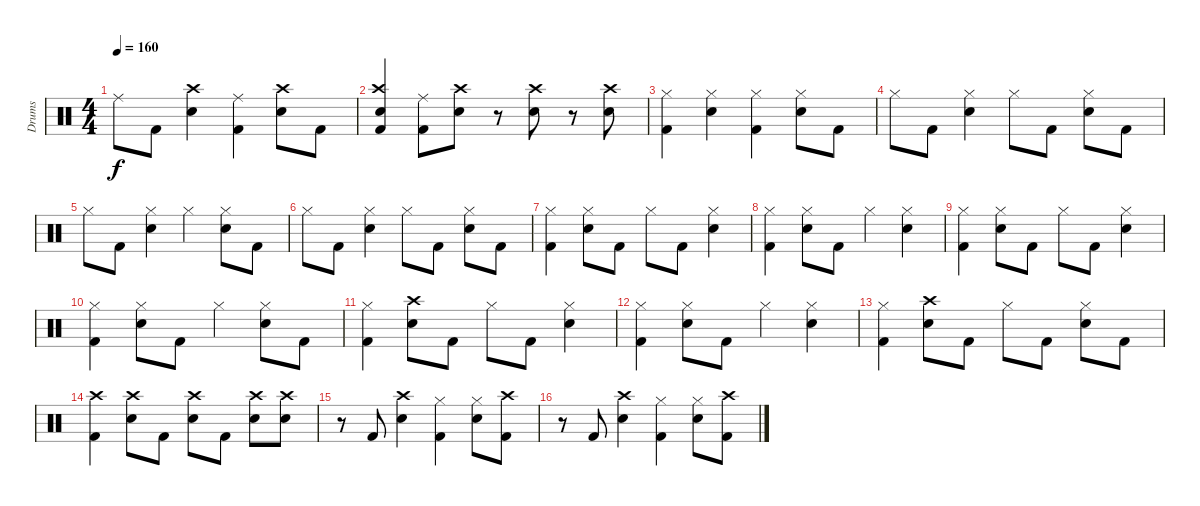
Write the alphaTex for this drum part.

\track ("Drums" "Drums") {instrument percussion}
\staff {score}
\articulation defaults
\ts (4 4)
\tempo 160
\clef neutral
\ks c "Ride (middle)".8{dy f} "Kick (hit) 2".8
("Crash high (hit)" "Electric Snare (hit)").4 ("Ride (middle)" "Kick (hit) 2").4 ("Crash high (hit)" "Electric Snare (hit)").8 "Kick (hit) 2".8 |
("Crash high (hit)" "Electric Snare (hit)" "Kick (hit) 2").4 ("Ride (middle)" "Kick (hit) 2").8 ("Crash high (hit)" "Electric Snare (hit)").8 r.8 ("Crash high (hit)" "Electric Snare (hit)").8 r.8 ("Crash high (hit)" "Electric Snare (hit)").8 |
("Hi-Hat (closed)" "Kick (hit) 2").4 ("Hi-Hat (closed)" "Electric Snare (hit)").4 ("Hi-Hat (closed)" "Kick (hit) 2").4 ("Hi-Hat (closed)" "Electric Snare (hit)").8 "Kick (hit) 2".8 |
"Hi-Hat (closed)".8 "Kick (hit) 2".8 ("Hi-Hat (closed)" "Electric Snare (hit)").4 "Hi-Hat (closed)".8 "Kick (hit) 2".8 ("Hi-Hat (closed)" "Electric Snare (hit)").8 "Kick (hit) 2".8 |
"Hi-Hat (closed)".8 "Kick (hit) 2".8 ("Hi-Hat (closed)" "Electric Snare (hit)").4 "Hi-Hat (closed)".4 ("Hi-Hat (closed)" "Electric Snare (hit)").8 "Kick (hit) 2".8 |
"Hi-Hat (closed)".8 "Kick (hit) 2".8 ("Hi-Hat (closed)" "Electric Snare (hit)").4 "Hi-Hat (closed)".8 "Kick (hit) 2".8 ("Hi-Hat (closed)" "Electric Snare (hit)").8 "Kick (hit) 2".8 |
("Hi-Hat (closed)" "Kick (hit) 2").4 ("Hi-Hat (closed)" "Electric Snare (hit)").8 "Kick (hit) 2".8 "Hi-Hat (closed)".8 "Kick (hit) 2".8 ("Hi-Hat (closed)" "Electric Snare (hit)").4 |
("Hi-Hat (closed)" "Kick (hit) 2").4 ("Hi-Hat (closed)" "Electric Snare (hit)").8 "Kick (hit) 2".8 "Hi-Hat (closed)".4 ("Hi-Hat (closed)" "Electric Snare (hit)").4 |
("Hi-Hat (closed)" "Kick (hit) 2").4 ("Hi-Hat (closed)" "Electric Snare (hit)").8 "Kick (hit) 2".8 "Hi-Hat (closed)".8 "Kick (hit) 2".8 ("Hi-Hat (closed)" "Electric Snare (hit)").4 |
("Hi-Hat (closed)" "Kick (hit) 2").4 ("Hi-Hat (closed)" "Electric Snare (hit)").8 "Kick (hit) 2".8 "Hi-Hat (closed)".4 ("Hi-Hat (closed)" "Electric Snare (hit)").8 "Kick (hit) 2".8 |
("Hi-Hat (closed)" "Kick (hit) 2").4 ("Crash high (hit)" "Electric Snare (hit)").8 "Kick (hit) 2".8 "Hi-Hat (closed)".8 "Kick (hit) 2".8 ("Hi-Hat (closed)" "Electric Snare (hit)").4 |
("Hi-Hat (closed)" "Kick (hit) 2").4 ("Hi-Hat (closed)" "Electric Snare (hit)").8 "Kick (hit) 2".8 "Hi-Hat (closed)".4 ("Hi-Hat (closed)" "Electric Snare (hit)").4 |
("Hi-Hat (closed)" "Kick (hit) 2").4 ("Crash high (hit)" "Electric Snare (hit)").8 "Kick (hit) 2".8 "Hi-Hat (closed)".8 "Kick (hit) 2".8 ("Hi-Hat (closed)" "Electric Snare (hit)").8 "Kick (hit) 2".8 |
("Crash high (hit)" "Kick (hit) 2").4 ("Crash high (hit)" "Electric Snare (hit)").8 "Kick (hit) 2".8 ("Crash high (hit)" "Electric Snare (hit)").8 "Kick (hit) 2".8 ("Crash high (hit)" "Electric Snare (hit)").8 ("Crash high (hit)" "Electric Snare (hit)").8 |
r.8 "Kick (hit) 2".8 ("Crash high (hit)" "Electric Snare (hit)").4 ("Hi-Hat (closed)" "Kick (hit) 2").4 ("Hi-Hat (closed)" "Electric Snare (hit)").8 ("Crash high (hit)" "Kick (hit) 2").8 |
r.8 "Kick (hit) 2".8 ("Crash high (hit)" "Electric Snare (hit)").4 ("Hi-Hat (closed)" "Kick (hit) 2").4 ("Hi-Hat (closed)" "Electric Snare (hit)").8 ("Crash high (hit)" "Kick (hit) 2").8
